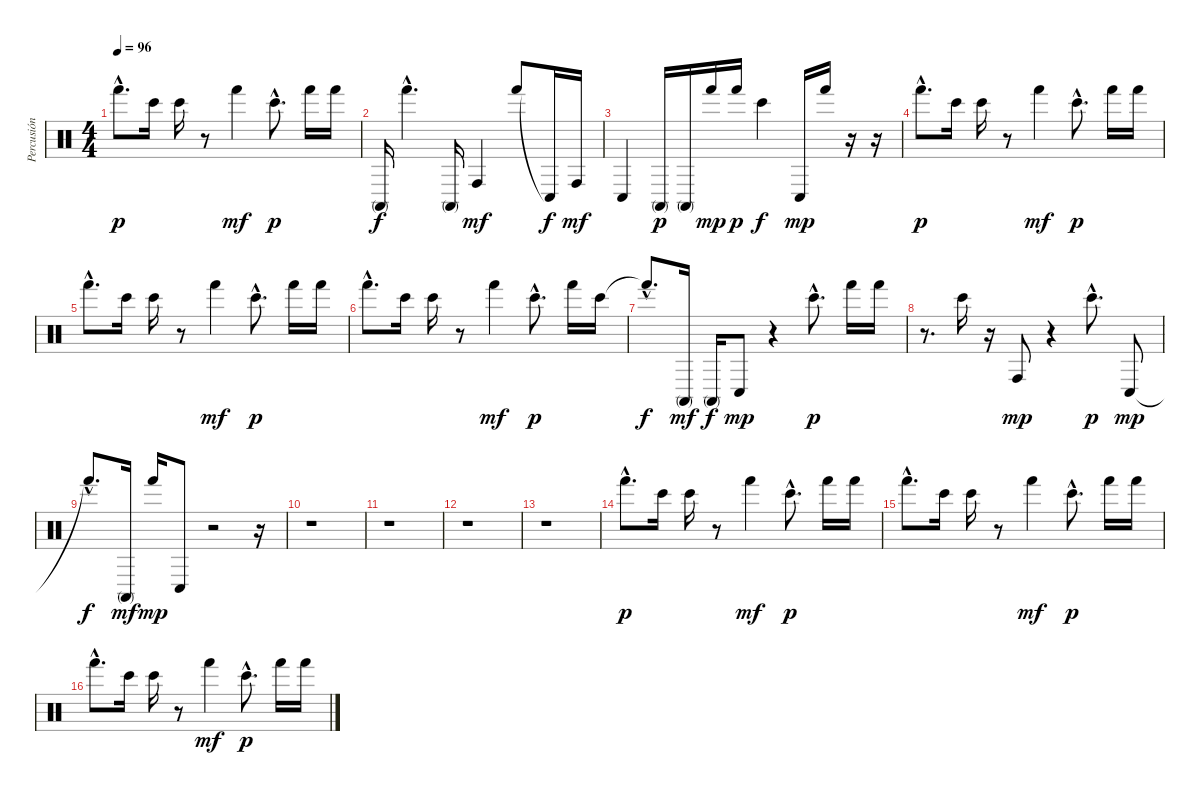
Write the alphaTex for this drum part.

\track ("Percusión" "Percusión") {instrument percussion}
\staff {score}
\articulation defaults
\ts (4 4)
\tempo 96
\clef neutral
\ks c "Hand (hit)"{hac}.8{d dy p} "Bongo High (hit)".16 "Bongo High (hit)".16
r.8 "Hand (hit)".4{dy mf} "Bongo High (hit)"{hac}.8{d dy p} "Hand (hit)".16 "Hand (hit)".16 |
"Conga high (mute)".16{dy f} "Hand (hit)"{hac}.4{d} "Conga high (mute)".16 "Conga high (hit)".4{dy mf} "Hand (hit)".8 "Conga low (hit)"{t}.16{dy f} "Conga high (hit)".16{dy mf} |
"Conga low (hit)".4 "Conga high (mute)".16{dy p} "Conga high (mute)".16 "Hand (hit)".16{dy mp} "Hand (hit)".16{dy p} "Bongo High (hit)".4{dy f} "Conga low (hit)".16{dy mp} "Hand (hit)".16 r.16 r.16 |
"Hand (hit)"{hac}.8{d dy p} "Bongo High (hit)".16 "Bongo High (hit)".16 r.8 "Hand (hit)".4{dy mf} "Bongo High (hit)"{hac}.8{d dy p} "Hand (hit)".16 "Hand (hit)".16 |
"Hand (hit)"{hac}.8{d} "Bongo High (hit)".16 "Bongo High (hit)".16 r.8 "Hand (hit)".4{dy mf} "Bongo High (hit)"{hac}.8{d dy p} "Hand (hit)".16 "Hand (hit)".16 |
"Hand (hit)"{hac}.8{d} "Bongo High (hit)".16 "Bongo High (hit)".16 r.8 "Hand (hit)".4{dy mf} "Bongo High (hit)"{hac}.8{d dy p} "Hand (hit)".16 "Bongo High (hit)".16 |
"Hand (hit)"{hac t}.8{d dy f} "Conga high (mute)".16{dy mf} "Conga high (mute)".16{dy f} "Conga low (hit)".8{dy mp} r.4 "Bongo High (hit)"{hac}.8{d dy p} "Hand (hit)".16 "Hand (hit)".16 |
r.8{d} "Bongo High (hit)".16 r.16 "Conga high (hit)".8{dy mp} r.4 "Bongo High (hit)"{hac}.8{d dy p} "Conga low (hit)".8{dy mp} |
"Hand (hit)"{hac t}.8{d dy f} "Conga high (mute)".16{dy mf} "Hand (hit)".16{dy mp} "Conga low (hit)".8 r.2 r.16 |
r.1 |
r.1 |
r.1 |
r.1 |
"Hand (hit)"{hac}.8{d dy p} "Bongo High (hit)".16 "Bongo High (hit)".16 r.8 "Hand (hit)".4{dy mf} "Bongo High (hit)"{hac}.8{d dy p} "Hand (hit)".16 "Hand (hit)".16 |
"Hand (hit)"{hac}.8{d} "Bongo High (hit)".16 "Bongo High (hit)".16 r.8 "Hand (hit)".4{dy mf} "Bongo High (hit)"{hac}.8{d dy p} "Hand (hit)".16 "Hand (hit)".16 |
"Hand (hit)"{hac}.8{d} "Bongo High (hit)".16 "Bongo High (hit)".16 r.8 "Hand (hit)".4{dy mf} "Bongo High (hit)"{hac}.8{d dy p} "Hand (hit)".16 "Hand (hit)".16
